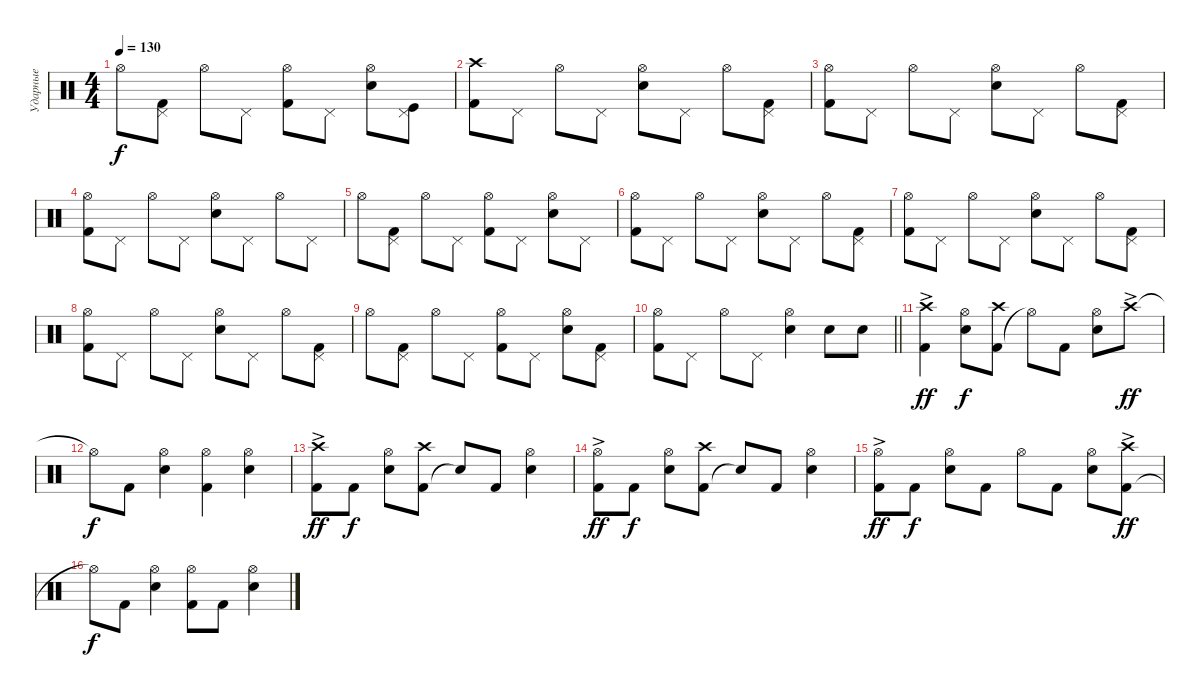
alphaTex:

\track ("Ударные" "Ударные") {instrument percussion}
\staff
\articulation defaults
\ts (4 4)
\tempo 130
\clef neutral
\ks c "Hi-Hat (open)".8{dy f}
("Kick (hit) 2" "Pedal Hi-Hat (hit)").8 "Hi-Hat (open)".8 "Pedal Hi-Hat (hit)".8 ("Kick (hit) 2" "Hi-Hat (open)").8 "Pedal Hi-Hat (hit)".8 ("Snare (hit) 2" "Hi-Hat (open)").8 ("Kick (hit)" "Pedal Hi-Hat (hit)").8 |
("Kick (hit) 2" "Crash high (hit)").8 "Pedal Hi-Hat (hit)".8 "Hi-Hat (open)".8 "Pedal Hi-Hat (hit)".8 ("Snare (hit) 2" "Hi-Hat (open)").8 "Pedal Hi-Hat (hit)".8 "Hi-Hat (open)".8 ("Kick (hit) 2" "Pedal Hi-Hat (hit)").8 |
("Kick (hit) 2" "Hi-Hat (open)").8 "Pedal Hi-Hat (hit)".8 "Hi-Hat (open)".8 "Pedal Hi-Hat (hit)".8 ("Snare (hit) 2" "Hi-Hat (open)").8 "Pedal Hi-Hat (hit)".8 "Hi-Hat (open)".8 ("Kick (hit) 2" "Pedal Hi-Hat (hit)").8 |
("Kick (hit) 2" "Hi-Hat (open)").8 "Pedal Hi-Hat (hit)".8 "Hi-Hat (open)".8 "Pedal Hi-Hat (hit)".8 ("Snare (hit) 2" "Hi-Hat (open)").8 "Pedal Hi-Hat (hit)".8 "Hi-Hat (open)".8 "Pedal Hi-Hat (hit)".8 |
"Hi-Hat (open)".8 ("Kick (hit) 2" "Pedal Hi-Hat (hit)").8 "Hi-Hat (open)".8 "Pedal Hi-Hat (hit)".8 ("Kick (hit) 2" "Hi-Hat (open)").8 "Pedal Hi-Hat (hit)".8 ("Snare (hit) 2" "Hi-Hat (open)").8 "Pedal Hi-Hat (hit)".8 |
("Kick (hit) 2" "Hi-Hat (open)").8 "Pedal Hi-Hat (hit)".8 "Hi-Hat (open)".8 "Pedal Hi-Hat (hit)".8 ("Snare (hit) 2" "Hi-Hat (open)").8 "Pedal Hi-Hat (hit)".8 "Hi-Hat (open)".8 ("Kick (hit) 2" "Pedal Hi-Hat (hit)").8 |
("Kick (hit) 2" "Hi-Hat (open)").8 "Pedal Hi-Hat (hit)".8 "Hi-Hat (open)".8 "Pedal Hi-Hat (hit)".8 ("Snare (hit) 2" "Hi-Hat (open)").8 "Pedal Hi-Hat (hit)".8 "Hi-Hat (open)".8 ("Kick (hit) 2" "Pedal Hi-Hat (hit)").8 |
("Kick (hit) 2" "Hi-Hat (open)").8 "Pedal Hi-Hat (hit)".8 "Hi-Hat (open)".8 "Pedal Hi-Hat (hit)".8 ("Snare (hit) 2" "Hi-Hat (open)").8 "Pedal Hi-Hat (hit)".8 "Hi-Hat (open)".8 ("Kick (hit) 2" "Pedal Hi-Hat (hit)").8 |
"Hi-Hat (open)".8 ("Kick (hit) 2" "Pedal Hi-Hat (hit)").8 "Hi-Hat (open)".8 "Pedal Hi-Hat (hit)".8 ("Kick (hit) 2" "Hi-Hat (open)").8 "Pedal Hi-Hat (hit)".8 ("Snare (hit) 2" "Hi-Hat (open)").8 ("Kick (hit) 2" "Pedal Hi-Hat (hit)").8 |
\barLineRight lightlight
("Kick (hit) 2" "Hi-Hat (open)").8 "Pedal Hi-Hat (hit)".8 "Hi-Hat (open)".8 "Pedal Hi-Hat (hit)".8 ("Snare (hit) 2" "Hi-Hat (open)").4 "Snare (hit) 2".8 "Snare (hit) 2".8 |
("Kick (hit) 2" "Crash high (hit)"{ac}).4{dy ff} ("Snare (hit) 2" "Hi-Hat (open)").8{dy f} ("Kick (hit) 2" "Crash high (hit)").8 "Hi-Hat (open)"{t}.8 "Kick (hit) 2".8 ("Snare (hit) 2" "Hi-Hat (open)").8 "Crash high (hit)"{ac}.8{dy ff} |
"Hi-Hat (open)"{t}.8{dy f} "Kick (hit) 2".8 ("Snare (hit) 2" "Hi-Hat (open)").4 ("Kick (hit) 2" "Hi-Hat (open)").4 ("Snare (hit) 2" "Hi-Hat (open)").4 |
("Kick (hit) 2" "Crash high (hit)"{ac}).8{dy ff} "Kick (hit) 2".8{dy f} ("Snare (hit) 2" "Hi-Hat (open)").8 ("Kick (hit) 2" "Crash high (hit)").8 "Snare (hit)"{t}.8 "Kick (hit) 2".8 ("Snare (hit) 2" "Hi-Hat (open)").4 |
("Kick (hit) 2" "Hi-Hat (open)"{ac}).8{dy ff} "Kick (hit) 2".8{dy f} ("Snare (hit) 2" "Hi-Hat (open)").8 ("Kick (hit) 2" "Crash high (hit)").8 "Snare (hit)"{t}.8 "Kick (hit) 2".8 ("Snare (hit) 2" "Hi-Hat (open)").4 |
("Kick (hit) 2" "Hi-Hat (open)"{ac}).8{dy ff} "Kick (hit) 2".8{dy f} ("Snare (hit) 2" "Hi-Hat (open)").8 "Kick (hit) 2".8 "Hi-Hat (open)".8 "Kick (hit) 2".8 ("Snare (hit) 2" "Hi-Hat (open)").8 ("Kick (hit) 2" "Crash high (hit)"{ac}).8{dy ff} |
"Hi-Hat (open)"{t}.8{dy f} "Kick (hit) 2".8 ("Snare (hit) 2" "Hi-Hat (open)").4 ("Kick (hit) 2" "Hi-Hat (open)").8 "Kick (hit) 2".8 ("Snare (hit) 2" "Hi-Hat (open)").4
